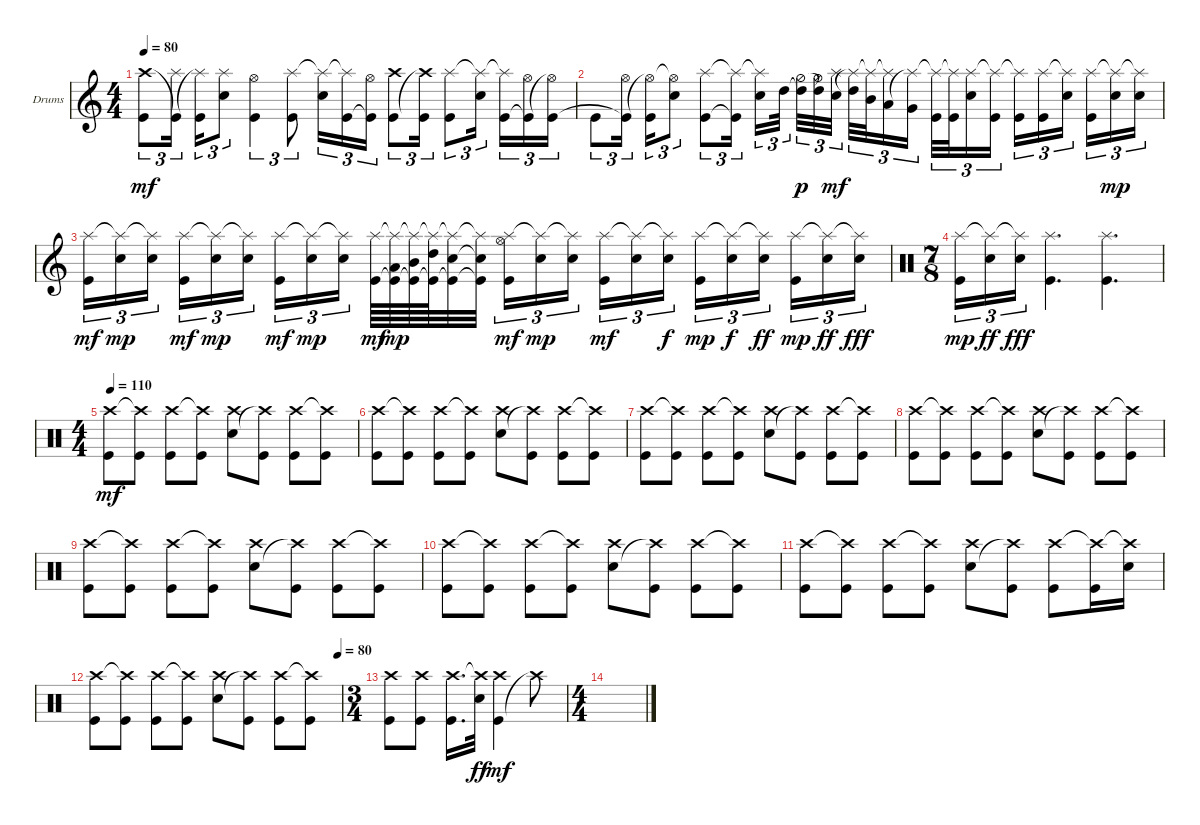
\bracketExtendMode groupsimilarinstruments
\firstSystemTrackNameOrientation horizontal
\otherSystemsTrackNameOrientation horizontal
\track ("Drumkit" "Drums") {instrument percussion}
\staff {score}
\articulation defaults
\ts (4 4)
\tempo 80
\clef g2
\ks c
("Kick (hit)" "Crash high (hit)").8{tu (3 2) dy mf} ("Splash (hit)" "Kick (hit)"{t}).16{tu (3 2)} ("Kick (hit)" "Splash (hit)"{t}).16{tu (3 2)} ("Snare (hit) 2" "Splash (hit)").8{tu (3 2)} ("Kick (hit)" "Hi-Hat (open)").4{tu (3 2)} ("Kick (hit)" "Splash (hit)").8{tu (3 2)} ("Snare (hit) 2" "Splash (hit)"{t}).16{tu (3 2)} ("Kick (hit)" "Splash (hit)"{t}).16{tu (3 2)} ("Kick (hit)"{t} "Hi-Hat (open)").16{tu (3 2)} ("Crash high (hit)" "Kick (hit)").8{tu (3 2)} ("Kick (hit)" "Crash high (hit)"{t}).16{tu (3 2)} ("Kick (hit)" "Splash (hit)").8{tu (3 2)} ("Snare (hit) 2" "Splash (hit)"{t}).16{tu (3 2)} ("Kick (hit)" "Splash (hit)"{t}).16{tu (3 2)} ("Kick (hit)"{t} "Hi-Hat (open)").16{tu (3 2)} ("Hi-Hat (open)"{t} "Kick (hit)").16{tu (3 2)} |
"Kick (hit)".8{tu (3 2)} ("Hi-Hat (open)" "Kick (hit)"{t}).16{tu (3 2)} ("Kick (hit)" "Hi-Hat (open)"{t}).16{tu (3 2)} ("Snare (hit) 2" "Hi-Hat (open)"{t}).8{tu (3 2)} ("Kick (hit)" "Splash (hit)").8{tu (3 2)} ("Kick (hit)"{t} "Splash (hit)"{t}).16{tu (3 2)} ("Snare (hit) 2" "Splash (hit)"{t}).16{tu (3 2)} "High Tom (hit)".32{tu (3 2)} ("High Tom (hit)"{t} "Hi-Hat (half)").32{tu (3 2) dy p} ("Hi-Hat (half)" "High Tom (hit)"{t}).32{tu (3 2)} ("Snare (hit) 2" "Splash (hit)").32{tu (3 2) dy mf} ("Splash (hit)"{t} "High Tom (hit)").32{tu (3 2)} ("Splash (hit)"{t} "Mid Tom (hit)").32{tu (3 2)} ("Splash (hit)"{t} "Low Tom (hit)").16{tu (3 2)} ("Very Low Tom (hit)" "Splash (hit)"{t}).16{tu (3 2)} ("Kick (hit)" "Splash (hit)"{t}).32{tu (3 2)} ("Kick (hit)" "Splash (hit)"{t}).32{tu (3 2)} ("Snare (hit) 2" "Splash (hit)").16{tu (3 2)} ("Kick (hit)" "Splash (hit)"{t}).16{tu (3 2)} ("Kick (hit)" "Splash (hit)"{t}).16{tu (3 2)} ("Kick (hit)" "Splash (hit)").16{tu (3 2)} ("Snare (hit) 2" "Splash (hit)"{t}).16{tu (3 2)} ("Kick (hit)" "Splash (hit)").16{tu (3 2)} ("Snare (hit) 2" "Splash (hit)"{t}).16{tu (3 2) dy mp} ("Snare (hit) 2" "Splash (hit)"{t}).16{tu (3 2)} |
("Kick (hit)" "Splash (hit)").16{tu (3 2) dy mf} ("Snare (hit) 2" "Splash (hit)"{t}).16{tu (3 2) dy mp} ("Snare (hit) 2" "Splash (hit)"{t}).16{tu (3 2)} ("Kick (hit)" "Splash (hit)").16{tu (3 2) dy mf} ("Snare (hit) 2" "Splash (hit)"{t}).16{tu (3 2) dy mp} ("Snare (hit) 2" "Splash (hit)"{t}).16{tu (3 2)} ("Kick (hit)" "Splash (hit)").16{tu (3 2) dy mf} ("Snare (hit) 2" "Splash (hit)"{t}).16{tu (3 2) dy mp} ("Snare (hit) 2" "Splash (hit)"{t}).16{tu (3 2)} ("Kick (hit)" "Splash (hit)").64{dy mf} ("Kick (hit)"{t} "Splash (hit)"{t} "Low Tom (hit)").64{dy mp} ("Kick (hit)"{t} "Splash (hit)"{t} "Mid Tom (hit)").64 ("Kick (hit)"{t} "Splash (hit)"{t} "High Tom (hit)").64 ("Kick (hit)"{t} "Splash (hit)"{t} "Snare (hit) 2").32 ("Kick (hit)"{t} "Splash (hit)"{t} "Snare (hit) 2"{t}).32 ("Kick (hit)" "Splash (hit)" "Hi-Hat (open)").16{tu (3 2) dy mf} ("Snare (hit) 2" "Splash (hit)"{t}).16{tu (3 2) dy mp} ("Snare (hit) 2" "Splash (hit)"{t}).16{tu (3 2)} ("Kick (hit)" "Splash (hit)").16{tu (3 2) dy mf} ("Snare (hit) 2" "Splash (hit)"{t}).16{tu (3 2)} ("Snare (hit) 2" "Splash (hit)"{t}).16{tu (3 2) dy f} ("Kick (hit)" "Splash (hit)").16{tu (3 2) dy mp} ("Snare (hit) 2" "Splash (hit)"{t}).16{tu (3 2) dy f} ("Snare (hit) 2" "Splash (hit)"{t}).16{tu (3 2) dy ff} ("Kick (hit)" "Splash (hit)").16{tu (3 2) dy mp} ("Snare (hit) 2" "Splash (hit)"{t}).16{tu (3 2) dy ff} ("Snare (hit) 2" "Splash (hit)"{t}).16{tu (3 2) dy fff} |
\ts (7 8)
\clef neutral
("Kick (hit)" "Splash (hit)").16{tu (3 2) dy mp} ("Snare (hit) 2" "Splash (hit)"{t}).16{tu (3 2) dy ff} ("Snare (hit) 2" "Splash (hit)"{t}).16{tu (3 2) dy fff} ("Kick (hit)" "Splash (hit)").4{d} ("Splash (hit)" "Kick (hit)").4{d} |
\ts (4 4)
\tempo (110 0.00625)
("Kick (hit)" "Crash high (hit)").8{dy mf} ("Kick (hit)" "Crash high (hit)"{t}).8 ("Kick (hit)" "Crash high (hit)").8 ("Kick (hit)" "Crash high (hit)"{t}).8 ("Crash high (hit)" "Snare (hit) 2").8 ("Kick (hit)" "Crash high (hit)"{t}).8 ("Kick (hit)" "Crash high (hit)").8 ("Kick (hit)" "Crash high (hit)"{t}).8 |
("Kick (hit)" "Crash high (hit)").8 ("Kick (hit)" "Crash high (hit)"{t}).8 ("Kick (hit)" "Crash high (hit)").8 ("Kick (hit)" "Crash high (hit)"{t}).8 ("Crash high (hit)" "Snare (hit) 2").8 ("Kick (hit)" "Crash high (hit)"{t}).8 ("Kick (hit)" "Crash high (hit)").8 ("Kick (hit)" "Crash high (hit)"{t}).8 |
("Kick (hit)" "Crash high (hit)").8 ("Kick (hit)" "Crash high (hit)"{t}).8 ("Kick (hit)" "Crash high (hit)").8 ("Kick (hit)" "Crash high (hit)"{t}).8 ("Crash high (hit)" "Snare (hit) 2").8 ("Kick (hit)" "Crash high (hit)"{t}).8 ("Kick (hit)" "Crash high (hit)").8 ("Kick (hit)" "Crash high (hit)"{t}).8 |
("Kick (hit)" "Crash high (hit)").8 ("Kick (hit)" "Crash high (hit)"{t}).8 ("Kick (hit)" "Crash high (hit)").8 ("Kick (hit)" "Crash high (hit)"{t}).8 ("Crash high (hit)" "Snare (hit) 2").8 ("Kick (hit)" "Crash high (hit)"{t}).8 ("Kick (hit)" "Crash high (hit)").8 ("Kick (hit)" "Crash high (hit)"{t}).8 |
("Kick (hit)" "Crash high (hit)").8 ("Kick (hit)" "Crash high (hit)"{t}).8 ("Kick (hit)" "Crash high (hit)").8 ("Kick (hit)" "Crash high (hit)"{t}).8 ("Crash high (hit)" "Snare (hit) 2").8 ("Kick (hit)" "Crash high (hit)"{t}).8 ("Kick (hit)" "Crash high (hit)").8 ("Kick (hit)" "Crash high (hit)"{t}).8 |
("Kick (hit)" "Crash high (hit)").8 ("Kick (hit)" "Crash high (hit)"{t}).8 ("Kick (hit)" "Crash high (hit)").8 ("Kick (hit)" "Crash high (hit)"{t}).8 ("Crash high (hit)" "Snare (hit) 2").8 ("Kick (hit)" "Crash high (hit)"{t}).8 ("Kick (hit)" "Crash high (hit)").8 ("Kick (hit)" "Crash high (hit)"{t}).8 |
("Kick (hit)" "Crash high (hit)").8 ("Kick (hit)" "Crash high (hit)"{t}).8 ("Kick (hit)" "Crash high (hit)").8 ("Kick (hit)" "Crash high (hit)"{t}).8 ("Crash high (hit)" "Snare (hit) 2").8 ("Kick (hit)" "Crash high (hit)"{t}).8 ("Kick (hit)" "Crash high (hit)").8 ("Kick (hit)" "Crash high (hit)"{t}).16 ("Snare (hit) 2" "Crash high (hit)"{t}).16 |
\tempo (80 0.9875)
("Kick (hit)" "Crash high (hit)").8 ("Kick (hit)" "Crash high (hit)"{t}).8 ("Kick (hit)" "Crash high (hit)").8 ("Kick (hit)" "Crash high (hit)"{t}).8 ("Crash high (hit)" "Snare (hit) 2").8 ("Kick (hit)" "Crash high (hit)"{t}).8 ("Kick (hit)" "Crash high (hit)").8 ("Kick (hit)" "Crash high (hit)"{t}).8 |
\ts (3 4)
("Kick (hit)" "Crash high (hit)").8 ("Kick (hit)" "Crash high (hit)").8 ("Kick (hit)" "Crash high (hit)").16{d} ("Snare (hit) 2" "Crash high (hit)"{t}).32{dy ff} ("Kick (hit)" "Crash high (hit)").4{dy mf} "Crash high (hit)"{t}.8 |
\ts (4 4)
